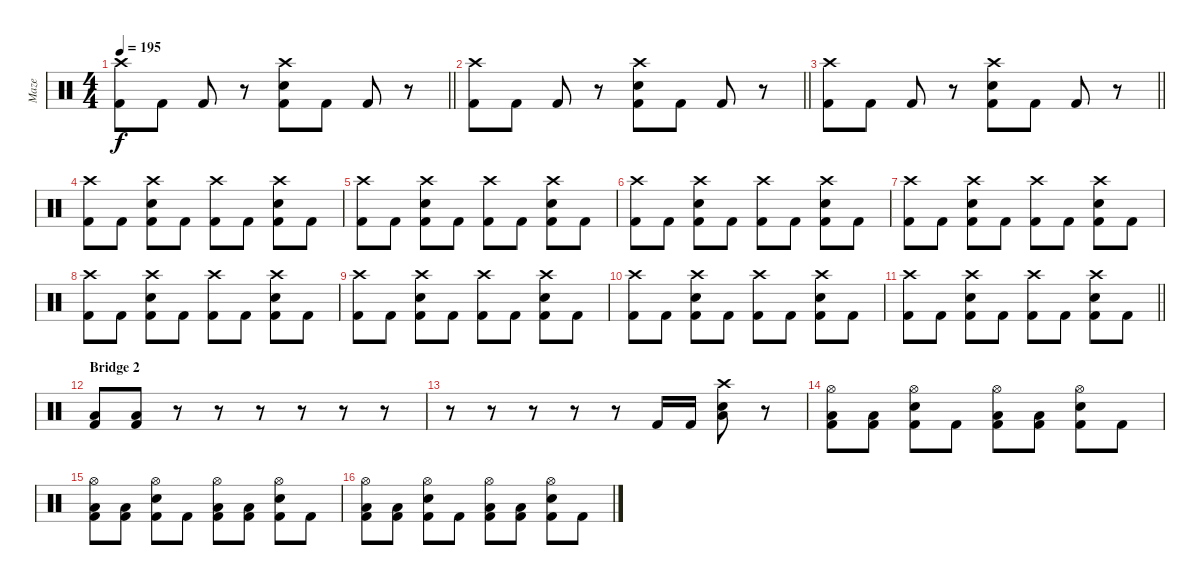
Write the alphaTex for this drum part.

\track ("Maze" "Maze") {instrument percussion}
\staff
\articulation defaults
\ts (4 4)
\tempo 195
\clef neutral
\barLineRight lightlight
\ks c
("Crash high (hit)" "Kick (hit) 2").8{dy f} "Kick (hit) 2".8 "Kick (hit) 2".8 r.8 ("Snare (hit) 2" "Crash high (hit)" "Kick (hit) 2").8 "Kick (hit) 2".8 "Kick (hit) 2".8 r.8 |
\barLineRight lightlight
("Crash high (hit)" "Kick (hit) 2").8 "Kick (hit) 2".8 "Kick (hit) 2".8 r.8 ("Snare (hit) 2" "Crash high (hit)" "Kick (hit) 2").8 "Kick (hit) 2".8 "Kick (hit) 2".8 r.8 |
\barLineRight lightlight
("Crash high (hit)" "Kick (hit) 2").8 "Kick (hit) 2".8 "Kick (hit) 2".8 r.8 ("Snare (hit) 2" "Crash high (hit)" "Kick (hit) 2").8 "Kick (hit) 2".8 "Kick (hit) 2".8 r.8 |
("Crash high (hit)" "Kick (hit) 2").8 "Kick (hit) 2".8 ("Snare (hit) 2" "Crash high (hit)" "Kick (hit) 2").8 "Kick (hit) 2".8 ("Crash high (hit)" "Kick (hit) 2").8 "Kick (hit) 2".8 ("Snare (hit) 2" "Crash high (hit)" "Kick (hit) 2").8 "Kick (hit) 2".8 |
("Crash high (hit)" "Kick (hit) 2").8 "Kick (hit) 2".8 ("Snare (hit) 2" "Crash high (hit)" "Kick (hit) 2").8 "Kick (hit) 2".8 ("Crash high (hit)" "Kick (hit) 2").8 "Kick (hit) 2".8 ("Snare (hit) 2" "Crash high (hit)" "Kick (hit) 2").8 "Kick (hit) 2".8 |
("Crash high (hit)" "Kick (hit) 2").8 "Kick (hit) 2".8 ("Snare (hit) 2" "Crash high (hit)" "Kick (hit) 2").8 "Kick (hit) 2".8 ("Crash high (hit)" "Kick (hit) 2").8 "Kick (hit) 2".8 ("Snare (hit) 2" "Crash high (hit)" "Kick (hit) 2").8 "Kick (hit) 2".8 |
("Crash high (hit)" "Kick (hit) 2").8 "Kick (hit) 2".8 ("Snare (hit) 2" "Crash high (hit)" "Kick (hit) 2").8 "Kick (hit) 2".8 ("Crash high (hit)" "Kick (hit) 2").8 "Kick (hit) 2".8 ("Snare (hit) 2" "Crash high (hit)" "Kick (hit) 2").8 "Kick (hit) 2".8 |
("Crash high (hit)" "Kick (hit) 2").8 "Kick (hit) 2".8 ("Snare (hit) 2" "Crash high (hit)" "Kick (hit) 2").8 "Kick (hit) 2".8 ("Crash high (hit)" "Kick (hit) 2").8 "Kick (hit) 2".8 ("Snare (hit) 2" "Crash high (hit)" "Kick (hit) 2").8 "Kick (hit) 2".8 |
("Crash high (hit)" "Kick (hit) 2").8 "Kick (hit) 2".8 ("Snare (hit) 2" "Crash high (hit)" "Kick (hit) 2").8 "Kick (hit) 2".8 ("Crash high (hit)" "Kick (hit) 2").8 "Kick (hit) 2".8 ("Snare (hit) 2" "Crash high (hit)" "Kick (hit) 2").8 "Kick (hit) 2".8 |
("Crash high (hit)" "Kick (hit) 2").8 "Kick (hit) 2".8 ("Snare (hit) 2" "Crash high (hit)" "Kick (hit) 2").8 "Kick (hit) 2".8 ("Crash high (hit)" "Kick (hit) 2").8 "Kick (hit) 2".8 ("Snare (hit) 2" "Crash high (hit)" "Kick (hit) 2").8 "Kick (hit) 2".8 |
\barLineRight lightlight
("Crash high (hit)" "Kick (hit) 2").8 "Kick (hit) 2".8 ("Snare (hit) 2" "Crash high (hit)" "Kick (hit) 2").8 "Kick (hit) 2".8 ("Crash high (hit)" "Kick (hit) 2").8 "Kick (hit) 2".8 ("Snare (hit) 2" "Crash high (hit)" "Kick (hit) 2").8 "Kick (hit) 2".8 |
\section ("" "Bridge 2")
("Low Tom (hit)" "Kick (hit) 2").8 ("Low Tom (hit)" "Kick (hit) 2").8 r.8 r.8 r.8 r.8 r.8 r.8 |
r.8 r.8 r.8 r.8 r.8 "Kick (hit) 2".16 "Kick (hit) 2".16 ("Crash high (hit)" "Snare (hit) 2" "Low Tom (hit)").8 r.8 |
("Hi-Hat (open)" "Low Tom (hit)" "Kick (hit) 2").8 ("Low Tom (hit)" "Kick (hit) 2").8 ("Snare (hit) 2" "Hi-Hat (open)" "Kick (hit) 2").8 "Kick (hit) 2".8 ("Hi-Hat (open)" "Low Tom (hit)" "Kick (hit) 2").8 ("Low Tom (hit)" "Kick (hit) 2").8 ("Snare (hit) 2" "Hi-Hat (open)" "Kick (hit) 2").8 "Kick (hit) 2".8 |
("Hi-Hat (open)" "Low Tom (hit)" "Kick (hit) 2").8 ("Low Tom (hit)" "Kick (hit) 2").8 ("Snare (hit) 2" "Hi-Hat (open)" "Kick (hit) 2").8 "Kick (hit) 2".8 ("Hi-Hat (open)" "Low Tom (hit)" "Kick (hit) 2").8 ("Low Tom (hit)" "Kick (hit) 2").8 ("Snare (hit) 2" "Hi-Hat (open)" "Kick (hit) 2").8 "Kick (hit) 2".8 |
("Hi-Hat (open)" "Low Tom (hit)" "Kick (hit) 2").8 ("Low Tom (hit)" "Kick (hit) 2").8 ("Snare (hit) 2" "Hi-Hat (open)" "Kick (hit) 2").8 "Kick (hit) 2".8 ("Hi-Hat (open)" "Low Tom (hit)" "Kick (hit) 2").8 ("Low Tom (hit)" "Kick (hit) 2").8 ("Snare (hit) 2" "Hi-Hat (open)" "Kick (hit) 2").8 "Kick (hit) 2".8
